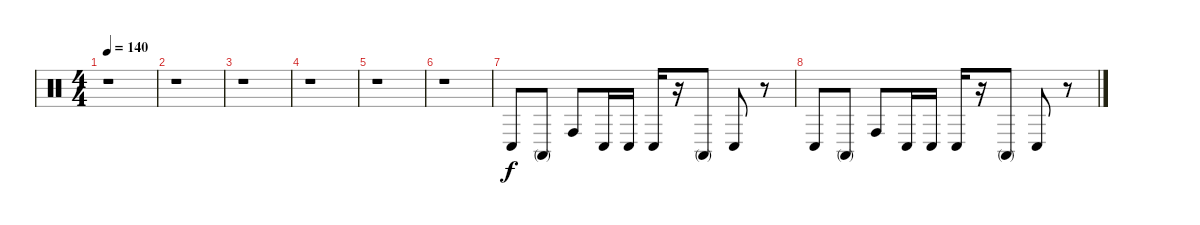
\track "" {instrument percussion}
\staff {score}
\articulation defaults
\ts (4 4)
\tempo 140
\clef neutral
\ks c
r.1{dy f} |
r.1 |
r.1 |
r.1 |
r.1 |
r.1 |
"Conga low (hit)".8 "Conga high (mute)".8 "Conga high (hit)".8 "Conga low (hit)".16 "Conga low (hit)".16 "Conga low (hit)".16 r.16 "Conga high (mute)".8 "Conga low (hit)".8 r.8 |
"Conga low (hit)".8 "Conga high (mute)".8 "Conga high (hit)".8 "Conga low (hit)".16 "Conga low (hit)".16 "Conga low (hit)".16 r.16 "Conga high (mute)".8 "Conga low (hit)".8 r.8
